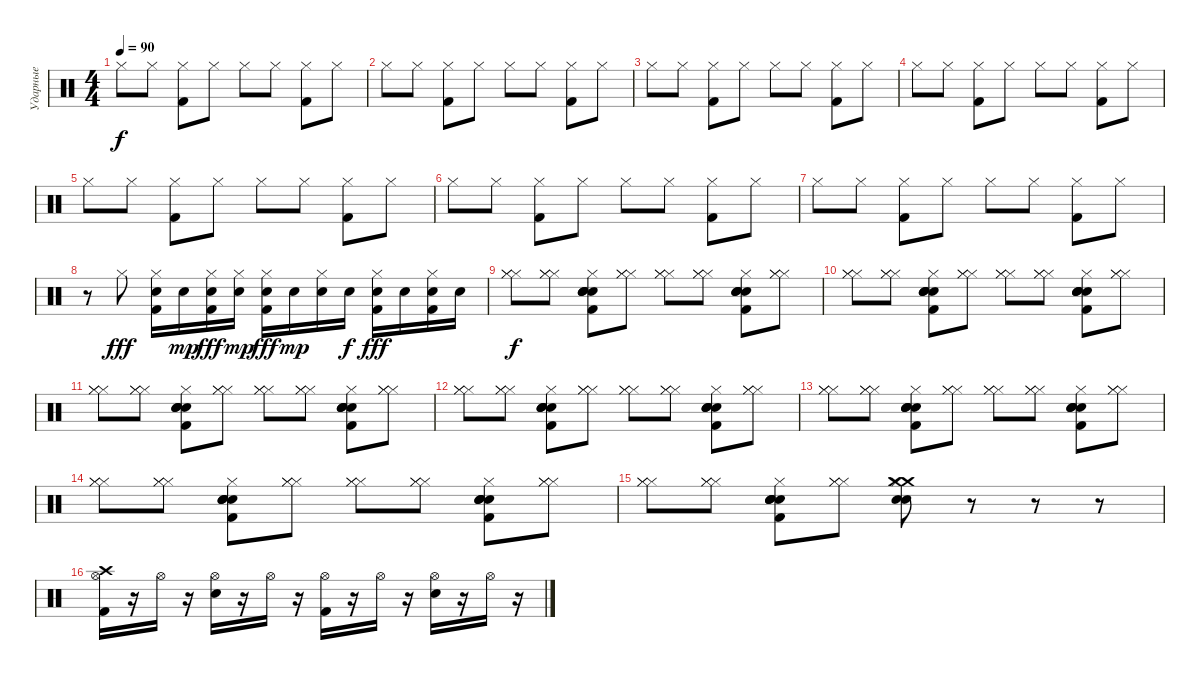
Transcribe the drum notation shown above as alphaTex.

\track ("Ударные" "Ударные") {instrument percussion}
\staff {score}
\articulation defaults
\ts (4 4)
\tempo 90
\clef neutral
\ks c "Hi-Hat (closed)".8{dy f} "Hi-Hat (closed)".8
("Hi-Hat (closed)" "Kick (hit) 2").8 "Hi-Hat (closed)".8 "Hi-Hat (closed)".8 "Hi-Hat (closed)".8 ("Hi-Hat (closed)" "Kick (hit) 2").8 "Hi-Hat (closed)".8 |
"Hi-Hat (closed)".8 "Hi-Hat (closed)".8 ("Hi-Hat (closed)" "Kick (hit) 2").8 "Hi-Hat (closed)".8 "Hi-Hat (closed)".8 "Hi-Hat (closed)".8 ("Hi-Hat (closed)" "Kick (hit) 2").8 "Hi-Hat (closed)".8 |
"Hi-Hat (closed)".8 "Hi-Hat (closed)".8 ("Hi-Hat (closed)" "Kick (hit) 2").8 "Hi-Hat (closed)".8 "Hi-Hat (closed)".8 "Hi-Hat (closed)".8 ("Hi-Hat (closed)" "Kick (hit) 2").8 "Hi-Hat (closed)".8 |
"Hi-Hat (closed)".8 "Hi-Hat (closed)".8 ("Hi-Hat (closed)" "Kick (hit) 2").8 "Hi-Hat (closed)".8 "Hi-Hat (closed)".8 "Hi-Hat (closed)".8 ("Hi-Hat (closed)" "Kick (hit) 2").8 "Hi-Hat (closed)".8 |
"Hi-Hat (closed)".8 "Hi-Hat (closed)".8 ("Hi-Hat (closed)" "Kick (hit) 2").8 "Hi-Hat (closed)".8 "Hi-Hat (closed)".8 "Hi-Hat (closed)".8 ("Hi-Hat (closed)" "Kick (hit) 2").8 "Hi-Hat (closed)".8 |
"Hi-Hat (closed)".8 "Hi-Hat (closed)".8 ("Hi-Hat (closed)" "Kick (hit) 2").8 "Hi-Hat (closed)".8 "Hi-Hat (closed)".8 "Hi-Hat (closed)".8 ("Hi-Hat (closed)" "Kick (hit) 2").8 "Hi-Hat (closed)".8 |
"Hi-Hat (closed)".8 "Hi-Hat (closed)".8 ("Hi-Hat (closed)" "Kick (hit) 2").8 "Hi-Hat (closed)".8 "Hi-Hat (closed)".8 "Hi-Hat (closed)".8 ("Hi-Hat (closed)" "Kick (hit) 2").8 "Hi-Hat (closed)".8 |
r.8 "Hi-Hat (closed)".8{dy fff} ("Hi-Hat (closed)" "Snare (hit) 2" "Kick (hit) 2").16 "Snare (hit) 2".16{dy mp} ("Hi-Hat (closed)" "Snare (hit) 2" "Kick (hit) 2").16{dy fff} ("Hi-Hat (closed)" "Snare (hit) 2").16{dy mp} ("Hi-Hat (closed)" "Snare (hit) 2" "Kick (hit) 2").16{dy fff} "Snare (hit) 2".16{dy mp} ("Hi-Hat (closed)" "Snare (hit) 2").16 "Snare (hit) 2".16{dy f} ("Hi-Hat (closed)" "Snare (hit) 2" "Kick (hit) 2").16{dy fff} "Snare (hit) 2".16 ("Hi-Hat (closed)" "Snare (hit) 2" "Kick (hit) 2").16 "Snare (hit) 2".16 |
("Hi-Hat (closed)" "Hi-Hat (closed)" "Hi-Hat (closed)").8{dy f} ("Hi-Hat (closed)" "Hi-Hat (closed)" "Hi-Hat (closed)").8 ("Electric Snare (hit)" "Electric Snare (hit)" "Electric Snare (hit)" "Electric Snare (hit)" "Hi-Hat (closed)" "Kick (hit) 2").8 ("Hi-Hat (closed)" "Hi-Hat (closed)" "Hi-Hat (closed)").8 ("Hi-Hat (closed)" "Hi-Hat (closed)" "Hi-Hat (closed)").8 ("Hi-Hat (closed)" "Hi-Hat (closed)" "Hi-Hat (closed)").8 ("Electric Snare (hit)" "Electric Snare (hit)" "Electric Snare (hit)" "Electric Snare (hit)" "Hi-Hat (closed)" "Kick (hit) 2").8 ("Hi-Hat (closed)" "Hi-Hat (closed)" "Hi-Hat (closed)").8 |
("Hi-Hat (closed)" "Hi-Hat (closed)" "Hi-Hat (closed)").8 ("Hi-Hat (closed)" "Hi-Hat (closed)" "Hi-Hat (closed)").8 ("Electric Snare (hit)" "Electric Snare (hit)" "Electric Snare (hit)" "Electric Snare (hit)" "Hi-Hat (closed)" "Kick (hit) 2").8 ("Hi-Hat (closed)" "Hi-Hat (closed)" "Hi-Hat (closed)").8 ("Hi-Hat (closed)" "Hi-Hat (closed)" "Hi-Hat (closed)").8 ("Hi-Hat (closed)" "Hi-Hat (closed)" "Hi-Hat (closed)").8 ("Electric Snare (hit)" "Electric Snare (hit)" "Electric Snare (hit)" "Electric Snare (hit)" "Hi-Hat (closed)" "Kick (hit) 2").8 ("Hi-Hat (closed)" "Hi-Hat (closed)" "Hi-Hat (closed)").8 |
("Hi-Hat (closed)" "Hi-Hat (closed)" "Hi-Hat (closed)").8 ("Hi-Hat (closed)" "Hi-Hat (closed)" "Hi-Hat (closed)").8 ("Electric Snare (hit)" "Electric Snare (hit)" "Electric Snare (hit)" "Electric Snare (hit)" "Hi-Hat (closed)" "Kick (hit) 2").8 ("Hi-Hat (closed)" "Hi-Hat (closed)" "Hi-Hat (closed)").8 ("Hi-Hat (closed)" "Hi-Hat (closed)" "Hi-Hat (closed)").8 ("Hi-Hat (closed)" "Hi-Hat (closed)" "Hi-Hat (closed)").8 ("Electric Snare (hit)" "Electric Snare (hit)" "Electric Snare (hit)" "Electric Snare (hit)" "Hi-Hat (closed)" "Kick (hit) 2").8 ("Hi-Hat (closed)" "Hi-Hat (closed)" "Hi-Hat (closed)").8 |
("Hi-Hat (closed)" "Hi-Hat (closed)" "Hi-Hat (closed)").8 ("Hi-Hat (closed)" "Hi-Hat (closed)" "Hi-Hat (closed)").8 ("Electric Snare (hit)" "Electric Snare (hit)" "Electric Snare (hit)" "Electric Snare (hit)" "Hi-Hat (closed)" "Kick (hit) 2").8 ("Hi-Hat (closed)" "Hi-Hat (closed)" "Hi-Hat (closed)").8 ("Hi-Hat (closed)" "Hi-Hat (closed)" "Hi-Hat (closed)").8 ("Hi-Hat (closed)" "Hi-Hat (closed)" "Hi-Hat (closed)").8 ("Electric Snare (hit)" "Electric Snare (hit)" "Electric Snare (hit)" "Electric Snare (hit)" "Hi-Hat (closed)" "Kick (hit) 2").8 ("Hi-Hat (closed)" "Hi-Hat (closed)" "Hi-Hat (closed)").8 |
("Hi-Hat (closed)" "Hi-Hat (closed)" "Hi-Hat (closed)").8 ("Hi-Hat (closed)" "Hi-Hat (closed)" "Hi-Hat (closed)").8 ("Electric Snare (hit)" "Electric Snare (hit)" "Electric Snare (hit)" "Electric Snare (hit)" "Hi-Hat (closed)" "Kick (hit) 2").8 ("Hi-Hat (closed)" "Hi-Hat (closed)" "Hi-Hat (closed)").8 ("Hi-Hat (closed)" "Hi-Hat (closed)" "Hi-Hat (closed)").8 ("Hi-Hat (closed)" "Hi-Hat (closed)" "Hi-Hat (closed)").8 ("Electric Snare (hit)" "Electric Snare (hit)" "Electric Snare (hit)" "Electric Snare (hit)" "Hi-Hat (closed)" "Kick (hit) 2").8 ("Hi-Hat (closed)" "Hi-Hat (closed)" "Hi-Hat (closed)").8 |
("Hi-Hat (closed)" "Hi-Hat (closed)" "Hi-Hat (closed)").8 ("Hi-Hat (closed)" "Hi-Hat (closed)" "Hi-Hat (closed)").8 ("Electric Snare (hit)" "Electric Snare (hit)" "Electric Snare (hit)" "Electric Snare (hit)" "Hi-Hat (closed)" "Kick (hit) 2").8 ("Hi-Hat (closed)" "Hi-Hat (closed)" "Hi-Hat (closed)").8 ("Hi-Hat (closed)" "Hi-Hat (closed)" "Hi-Hat (closed)").8 ("Hi-Hat (closed)" "Hi-Hat (closed)" "Hi-Hat (closed)").8 ("Electric Snare (hit)" "Electric Snare (hit)" "Electric Snare (hit)" "Electric Snare (hit)" "Hi-Hat (closed)" "Kick (hit) 2").8 ("Hi-Hat (closed)" "Hi-Hat (closed)" "Hi-Hat (closed)").8 |
("Hi-Hat (closed)" "Hi-Hat (closed)" "Hi-Hat (closed)").8 ("Hi-Hat (closed)" "Hi-Hat (closed)" "Hi-Hat (closed)").8 ("Electric Snare (hit)" "Electric Snare (hit)" "Electric Snare (hit)" "Electric Snare (hit)" "Hi-Hat (closed)" "Kick (hit) 2").8 ("Hi-Hat (closed)" "Hi-Hat (closed)" "Hi-Hat (closed)").8 ("Crash medium (hit)" "Electric Snare (hit)" "Hi-Hat (closed)" "Electric Snare (hit)" "Crash medium (hit)").8 r.8 r.8 r.8 |
("Kick (hit) 2" "Crash high (hit)" "Hi-Hat (open)").16 r.16 "Hi-Hat (open)".16 r.16 ("Snare (hit) 2" "Hi-Hat (open)").16 r.16 "Hi-Hat (open)".16 r.16 ("Kick (hit) 2" "Hi-Hat (open)").16 r.16 "Hi-Hat (open)".16 r.16 ("Snare (hit) 2" "Hi-Hat (open)").16 r.16 "Hi-Hat (open)".16 r.16
